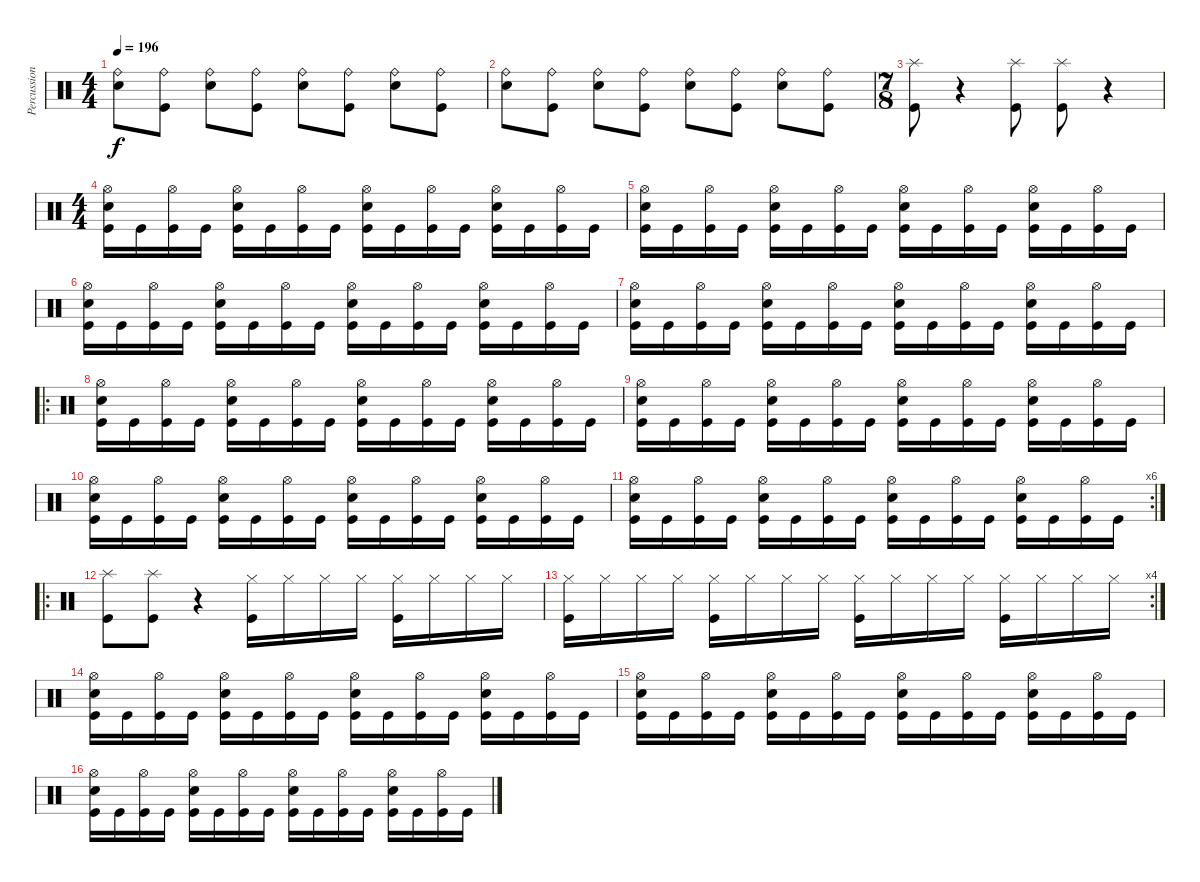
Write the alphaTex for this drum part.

\track ("Percussions" "Percussion") {instrument percussion}
\staff {score}
\articulation defaults
\ts (4 4)
\tempo 196
\clef neutral
\ks c
("Electric Snare (hit)" "Ride (bell)").8{dy f} ("Kick (hit)" "Ride (bell)").8 ("Electric Snare (hit)" "Ride (bell)").8 ("Kick (hit)" "Ride (bell)").8 ("Electric Snare (hit)" "Ride (bell)").8 ("Kick (hit)" "Ride (bell)").8 ("Electric Snare (hit)" "Ride (bell)").8 ("Kick (hit)" "Ride (bell)").8 |
("Electric Snare (hit)" "Ride (bell)").8 ("Kick (hit)" "Ride (bell)").8 ("Electric Snare (hit)" "Ride (bell)").8 ("Kick (hit)" "Ride (bell)").8 ("Electric Snare (hit)" "Ride (bell)").8 ("Kick (hit)" "Ride (bell)").8 ("Electric Snare (hit)" "Ride (bell)").8 ("Kick (hit)" "Ride (bell)").8 |
\ts (7 8)
("Kick (hit)" "Splash (hit)").8 r.4 ("Kick (hit)" "Splash (hit)").8 ("Kick (hit)" "Splash (hit)").8 r.4 |
\ts (4 4)
("Kick (hit)" "Electric Snare (hit)" "Hi-Hat (open)").16 "Kick (hit)".16 ("Kick (hit)" "Hi-Hat (open)").16 "Kick (hit)".16 ("Kick (hit)" "Electric Snare (hit)" "Hi-Hat (open)").16 "Kick (hit)".16 ("Kick (hit)" "Hi-Hat (open)").16 "Kick (hit)".16 ("Kick (hit)" "Electric Snare (hit)" "Hi-Hat (open)").16 "Kick (hit)".16 ("Kick (hit)" "Hi-Hat (open)").16 "Kick (hit)".16 ("Kick (hit)" "Electric Snare (hit)" "Hi-Hat (open)").16 "Kick (hit)".16 ("Kick (hit)" "Hi-Hat (open)").16 "Kick (hit)".16 |
("Kick (hit)" "Electric Snare (hit)" "Hi-Hat (open)").16 "Kick (hit)".16 ("Kick (hit)" "Hi-Hat (open)").16 "Kick (hit)".16 ("Kick (hit)" "Electric Snare (hit)" "Hi-Hat (open)").16 "Kick (hit)".16 ("Kick (hit)" "Hi-Hat (open)").16 "Kick (hit)".16 ("Kick (hit)" "Electric Snare (hit)" "Hi-Hat (open)").16 "Kick (hit)".16 ("Kick (hit)" "Hi-Hat (open)").16 "Kick (hit)".16 ("Kick (hit)" "Electric Snare (hit)" "Hi-Hat (open)").16 "Kick (hit)".16 ("Kick (hit)" "Hi-Hat (open)").16 "Kick (hit)".16 |
("Kick (hit)" "Electric Snare (hit)" "Hi-Hat (open)").16 "Kick (hit)".16 ("Kick (hit)" "Hi-Hat (open)").16 "Kick (hit)".16 ("Kick (hit)" "Electric Snare (hit)" "Hi-Hat (open)").16 "Kick (hit)".16 ("Kick (hit)" "Hi-Hat (open)").16 "Kick (hit)".16 ("Kick (hit)" "Electric Snare (hit)" "Hi-Hat (open)").16 "Kick (hit)".16 ("Kick (hit)" "Hi-Hat (open)").16 "Kick (hit)".16 ("Kick (hit)" "Electric Snare (hit)" "Hi-Hat (open)").16 "Kick (hit)".16 ("Kick (hit)" "Hi-Hat (open)").16 "Kick (hit)".16 |
("Kick (hit)" "Electric Snare (hit)" "Hi-Hat (open)").16 "Kick (hit)".16 ("Kick (hit)" "Hi-Hat (open)").16 "Kick (hit)".16 ("Kick (hit)" "Electric Snare (hit)" "Hi-Hat (open)").16 "Kick (hit)".16 ("Kick (hit)" "Hi-Hat (open)").16 "Kick (hit)".16 ("Kick (hit)" "Electric Snare (hit)" "Hi-Hat (open)").16 "Kick (hit)".16 ("Kick (hit)" "Hi-Hat (open)").16 "Kick (hit)".16 ("Kick (hit)" "Electric Snare (hit)" "Hi-Hat (open)").16 "Kick (hit)".16 ("Kick (hit)" "Hi-Hat (open)").16 "Kick (hit)".16 |
\ro
("Kick (hit)" "Electric Snare (hit)" "Hi-Hat (open)").16 "Kick (hit)".16 ("Kick (hit)" "Hi-Hat (open)").16 "Kick (hit)".16 ("Kick (hit)" "Electric Snare (hit)" "Hi-Hat (open)").16 "Kick (hit)".16 ("Kick (hit)" "Hi-Hat (open)").16 "Kick (hit)".16 ("Kick (hit)" "Electric Snare (hit)" "Hi-Hat (open)").16 "Kick (hit)".16 ("Kick (hit)" "Hi-Hat (open)").16 "Kick (hit)".16 ("Kick (hit)" "Electric Snare (hit)" "Hi-Hat (open)").16 "Kick (hit)".16 ("Kick (hit)" "Hi-Hat (open)").16 "Kick (hit)".16 |
("Kick (hit)" "Electric Snare (hit)" "Hi-Hat (open)").16 "Kick (hit)".16 ("Kick (hit)" "Hi-Hat (open)").16 "Kick (hit)".16 ("Kick (hit)" "Electric Snare (hit)" "Hi-Hat (open)").16 "Kick (hit)".16 ("Kick (hit)" "Hi-Hat (open)").16 "Kick (hit)".16 ("Kick (hit)" "Electric Snare (hit)" "Hi-Hat (open)").16 "Kick (hit)".16 ("Kick (hit)" "Hi-Hat (open)").16 "Kick (hit)".16 ("Kick (hit)" "Electric Snare (hit)" "Hi-Hat (open)").16 "Kick (hit)".16 ("Kick (hit)" "Hi-Hat (open)").16 "Kick (hit)".16 |
("Kick (hit)" "Electric Snare (hit)" "Hi-Hat (open)").16 "Kick (hit)".16 ("Kick (hit)" "Hi-Hat (open)").16 "Kick (hit)".16 ("Kick (hit)" "Electric Snare (hit)" "Hi-Hat (open)").16 "Kick (hit)".16 ("Kick (hit)" "Hi-Hat (open)").16 "Kick (hit)".16 ("Kick (hit)" "Electric Snare (hit)" "Hi-Hat (open)").16 "Kick (hit)".16 ("Kick (hit)" "Hi-Hat (open)").16 "Kick (hit)".16 ("Kick (hit)" "Electric Snare (hit)" "Hi-Hat (open)").16 "Kick (hit)".16 ("Kick (hit)" "Hi-Hat (open)").16 "Kick (hit)".16 |
\rc 6
("Kick (hit)" "Electric Snare (hit)" "Hi-Hat (open)").16 "Kick (hit)".16 ("Kick (hit)" "Hi-Hat (open)").16 "Kick (hit)".16 ("Kick (hit)" "Electric Snare (hit)" "Hi-Hat (open)").16 "Kick (hit)".16 ("Kick (hit)" "Hi-Hat (open)").16 "Kick (hit)".16 ("Kick (hit)" "Electric Snare (hit)" "Hi-Hat (open)").16 "Kick (hit)".16 ("Kick (hit)" "Hi-Hat (open)").16 "Kick (hit)".16 ("Kick (hit)" "Electric Snare (hit)" "Hi-Hat (open)").16 "Kick (hit)".16 ("Kick (hit)" "Hi-Hat (open)").16 "Kick (hit)".16 |
\ro
("Kick (hit)" "Splash (hit)").8 ("Kick (hit)" "Splash (hit)").8 r.4 ("Kick (hit)" "Hi-Hat (closed)").16 "Hi-Hat (closed)".16 "Hi-Hat (closed)".16 "Hi-Hat (closed)".16 ("Kick (hit)" "Hi-Hat (closed)").16 "Hi-Hat (closed)".16 "Hi-Hat (closed)".16 "Hi-Hat (closed)".16 |
\rc 4
("Kick (hit)" "Hi-Hat (closed)").16 "Hi-Hat (closed)".16 "Hi-Hat (closed)".16 "Hi-Hat (closed)".16 ("Kick (hit)" "Hi-Hat (closed)").16 "Hi-Hat (closed)".16 "Hi-Hat (closed)".16 "Hi-Hat (closed)".16 ("Kick (hit)" "Hi-Hat (closed)").16 "Hi-Hat (closed)".16 "Hi-Hat (closed)".16 "Hi-Hat (closed)".16 ("Kick (hit)" "Hi-Hat (closed)").16 "Hi-Hat (closed)".16 "Hi-Hat (closed)".16 "Hi-Hat (closed)".16 |
("Kick (hit)" "Electric Snare (hit)" "Hi-Hat (open)").16 "Kick (hit)".16 ("Kick (hit)" "Hi-Hat (open)").16 "Kick (hit)".16 ("Kick (hit)" "Electric Snare (hit)" "Hi-Hat (open)").16 "Kick (hit)".16 ("Kick (hit)" "Hi-Hat (open)").16 "Kick (hit)".16 ("Kick (hit)" "Electric Snare (hit)" "Hi-Hat (open)").16 "Kick (hit)".16 ("Kick (hit)" "Hi-Hat (open)").16 "Kick (hit)".16 ("Kick (hit)" "Electric Snare (hit)" "Hi-Hat (open)").16 "Kick (hit)".16 ("Kick (hit)" "Hi-Hat (open)").16 "Kick (hit)".16 |
("Kick (hit)" "Electric Snare (hit)" "Hi-Hat (open)").16 "Kick (hit)".16 ("Kick (hit)" "Hi-Hat (open)").16 "Kick (hit)".16 ("Kick (hit)" "Electric Snare (hit)" "Hi-Hat (open)").16 "Kick (hit)".16 ("Kick (hit)" "Hi-Hat (open)").16 "Kick (hit)".16 ("Kick (hit)" "Electric Snare (hit)" "Hi-Hat (open)").16 "Kick (hit)".16 ("Kick (hit)" "Hi-Hat (open)").16 "Kick (hit)".16 ("Kick (hit)" "Electric Snare (hit)" "Hi-Hat (open)").16 "Kick (hit)".16 ("Kick (hit)" "Hi-Hat (open)").16 "Kick (hit)".16 |
("Kick (hit)" "Electric Snare (hit)" "Hi-Hat (open)").16 "Kick (hit)".16 ("Kick (hit)" "Hi-Hat (open)").16 "Kick (hit)".16 ("Kick (hit)" "Electric Snare (hit)" "Hi-Hat (open)").16 "Kick (hit)".16 ("Kick (hit)" "Hi-Hat (open)").16 "Kick (hit)".16 ("Kick (hit)" "Electric Snare (hit)" "Hi-Hat (open)").16 "Kick (hit)".16 ("Kick (hit)" "Hi-Hat (open)").16 "Kick (hit)".16 ("Kick (hit)" "Electric Snare (hit)" "Hi-Hat (open)").16 "Kick (hit)".16 ("Kick (hit)" "Hi-Hat (open)").16 "Kick (hit)".16
